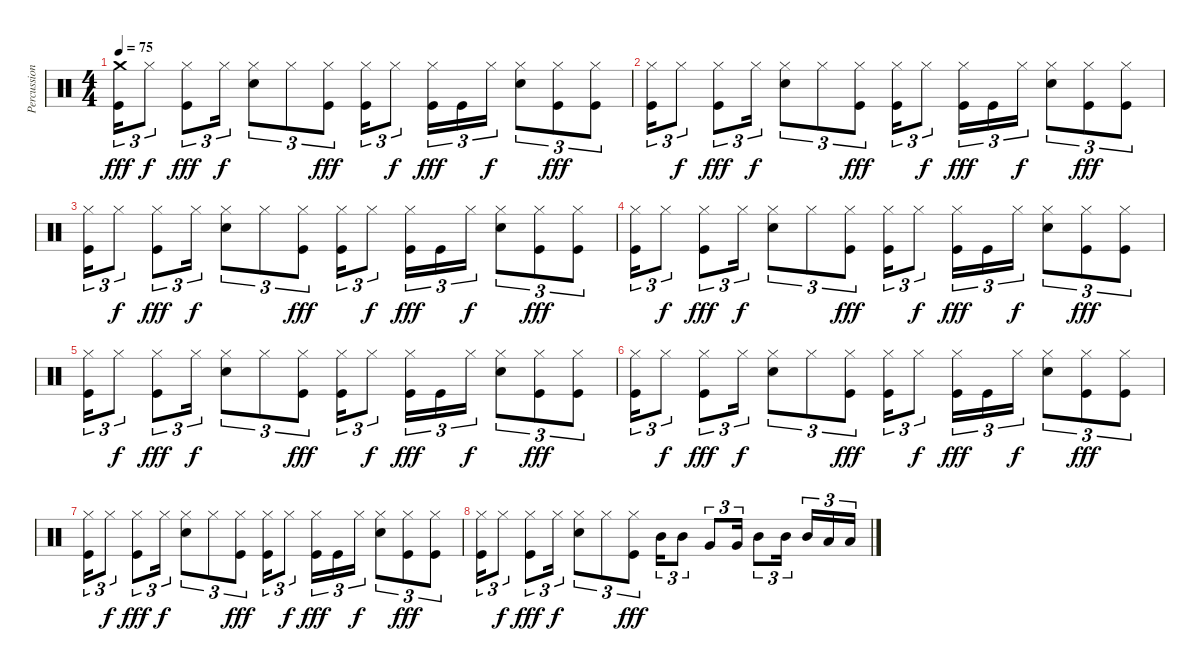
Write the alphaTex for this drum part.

\track ("Percussion" "Percussion") {instrument percussion}
\staff {score}
\articulation defaults
\ts (4 4)
\tempo 75
\clef neutral
\ks c
("Crash medium (hit)" "Kick (hit)").16{tu (3 2) dy fff} "Hi-Hat (closed)".8{tu (3 2) dy f} ("Hi-Hat (closed)" "Kick (hit)").8{tu (3 2) dy fff} "Hi-Hat (closed)".16{tu (3 2) dy f} ("Hi-Hat (closed)" "Snare (hit) 2").8{tu (3 2)} "Hi-Hat (closed)".8{tu (3 2)} ("Hi-Hat (closed)" "Kick (hit)").8{tu (3 2) dy fff} ("Hi-Hat (closed)" "Kick (hit)").16{tu (3 2)} "Hi-Hat (closed)".8{tu (3 2) dy f} ("Hi-Hat (closed)" "Kick (hit)").16{tu (3 2) dy fff} "Kick (hit)".16{tu (3 2)} "Hi-Hat (closed)".16{tu (3 2) dy f} ("Hi-Hat (closed)" "Snare (hit) 2").8{tu (3 2)} ("Hi-Hat (closed)" "Kick (hit)").8{tu (3 2) dy fff} ("Hi-Hat (closed)" "Kick (hit)").8{tu (3 2)} |
("Hi-Hat (closed)" "Kick (hit)").16{tu (3 2)} "Hi-Hat (closed)".8{tu (3 2) dy f} ("Hi-Hat (closed)" "Kick (hit)").8{tu (3 2) dy fff} "Hi-Hat (closed)".16{tu (3 2) dy f} ("Hi-Hat (closed)" "Snare (hit) 2").8{tu (3 2)} "Hi-Hat (closed)".8{tu (3 2)} ("Hi-Hat (closed)" "Kick (hit)").8{tu (3 2) dy fff} ("Hi-Hat (closed)" "Kick (hit)").16{tu (3 2)} "Hi-Hat (closed)".8{tu (3 2) dy f} ("Hi-Hat (closed)" "Kick (hit)").16{tu (3 2) dy fff} "Kick (hit)".16{tu (3 2)} "Hi-Hat (closed)".16{tu (3 2) dy f} ("Hi-Hat (closed)" "Snare (hit) 2").8{tu (3 2)} ("Hi-Hat (closed)" "Kick (hit)").8{tu (3 2) dy fff} ("Hi-Hat (closed)" "Kick (hit)").8{tu (3 2)} |
("Hi-Hat (closed)" "Kick (hit)").16{tu (3 2)} "Hi-Hat (closed)".8{tu (3 2) dy f} ("Hi-Hat (closed)" "Kick (hit)").8{tu (3 2) dy fff} "Hi-Hat (closed)".16{tu (3 2) dy f} ("Hi-Hat (closed)" "Snare (hit) 2").8{tu (3 2)} "Hi-Hat (closed)".8{tu (3 2)} ("Hi-Hat (closed)" "Kick (hit)").8{tu (3 2) dy fff} ("Hi-Hat (closed)" "Kick (hit)").16{tu (3 2)} "Hi-Hat (closed)".8{tu (3 2) dy f} ("Hi-Hat (closed)" "Kick (hit)").16{tu (3 2) dy fff} "Kick (hit)".16{tu (3 2)} "Hi-Hat (closed)".16{tu (3 2) dy f} ("Hi-Hat (closed)" "Snare (hit) 2").8{tu (3 2)} ("Hi-Hat (closed)" "Kick (hit)").8{tu (3 2) dy fff} ("Hi-Hat (closed)" "Kick (hit)").8{tu (3 2)} |
("Hi-Hat (closed)" "Kick (hit)").16{tu (3 2)} "Hi-Hat (closed)".8{tu (3 2) dy f} ("Hi-Hat (closed)" "Kick (hit)").8{tu (3 2) dy fff} "Hi-Hat (closed)".16{tu (3 2) dy f} ("Hi-Hat (closed)" "Snare (hit) 2").8{tu (3 2)} "Hi-Hat (closed)".8{tu (3 2)} ("Hi-Hat (closed)" "Kick (hit)").8{tu (3 2) dy fff} ("Hi-Hat (closed)" "Kick (hit)").16{tu (3 2)} "Hi-Hat (closed)".8{tu (3 2) dy f} ("Hi-Hat (closed)" "Kick (hit)").16{tu (3 2) dy fff} "Kick (hit)".16{tu (3 2)} "Hi-Hat (closed)".16{tu (3 2) dy f} ("Hi-Hat (closed)" "Snare (hit) 2").8{tu (3 2)} ("Hi-Hat (closed)" "Kick (hit)").8{tu (3 2) dy fff} ("Hi-Hat (closed)" "Kick (hit)").8{tu (3 2)} |
("Hi-Hat (closed)" "Kick (hit)").16{tu (3 2)} "Hi-Hat (closed)".8{tu (3 2) dy f} ("Hi-Hat (closed)" "Kick (hit)").8{tu (3 2) dy fff} "Hi-Hat (closed)".16{tu (3 2) dy f} ("Hi-Hat (closed)" "Snare (hit) 2").8{tu (3 2)} "Hi-Hat (closed)".8{tu (3 2)} ("Hi-Hat (closed)" "Kick (hit)").8{tu (3 2) dy fff} ("Hi-Hat (closed)" "Kick (hit)").16{tu (3 2)} "Hi-Hat (closed)".8{tu (3 2) dy f} ("Hi-Hat (closed)" "Kick (hit)").16{tu (3 2) dy fff} "Kick (hit)".16{tu (3 2)} "Hi-Hat (closed)".16{tu (3 2) dy f} ("Hi-Hat (closed)" "Snare (hit) 2").8{tu (3 2)} ("Hi-Hat (closed)" "Kick (hit)").8{tu (3 2) dy fff} ("Hi-Hat (closed)" "Kick (hit)").8{tu (3 2)} |
("Hi-Hat (closed)" "Kick (hit)").16{tu (3 2)} "Hi-Hat (closed)".8{tu (3 2) dy f} ("Hi-Hat (closed)" "Kick (hit)").8{tu (3 2) dy fff} "Hi-Hat (closed)".16{tu (3 2) dy f} ("Hi-Hat (closed)" "Snare (hit) 2").8{tu (3 2)} "Hi-Hat (closed)".8{tu (3 2)} ("Hi-Hat (closed)" "Kick (hit)").8{tu (3 2) dy fff} ("Hi-Hat (closed)" "Kick (hit)").16{tu (3 2)} "Hi-Hat (closed)".8{tu (3 2) dy f} ("Hi-Hat (closed)" "Kick (hit)").16{tu (3 2) dy fff} "Kick (hit)".16{tu (3 2)} "Hi-Hat (closed)".16{tu (3 2) dy f} ("Hi-Hat (closed)" "Snare (hit) 2").8{tu (3 2)} ("Hi-Hat (closed)" "Kick (hit)").8{tu (3 2) dy fff} ("Hi-Hat (closed)" "Kick (hit)").8{tu (3 2)} |
("Hi-Hat (closed)" "Kick (hit)").16{tu (3 2)} "Hi-Hat (closed)".8{tu (3 2) dy f} ("Hi-Hat (closed)" "Kick (hit)").8{tu (3 2) dy fff} "Hi-Hat (closed)".16{tu (3 2) dy f} ("Hi-Hat (closed)" "Snare (hit) 2").8{tu (3 2)} "Hi-Hat (closed)".8{tu (3 2)} ("Hi-Hat (closed)" "Kick (hit)").8{tu (3 2) dy fff} ("Hi-Hat (closed)" "Kick (hit)").16{tu (3 2)} "Hi-Hat (closed)".8{tu (3 2) dy f} ("Hi-Hat (closed)" "Kick (hit)").16{tu (3 2) dy fff} "Kick (hit)".16{tu (3 2)} "Hi-Hat (closed)".16{tu (3 2) dy f} ("Hi-Hat (closed)" "Snare (hit) 2").8{tu (3 2)} ("Hi-Hat (closed)" "Kick (hit)").8{tu (3 2) dy fff} ("Hi-Hat (closed)" "Kick (hit)").8{tu (3 2)} |
("Hi-Hat (closed)" "Kick (hit)").16{tu (3 2)} "Hi-Hat (closed)".8{tu (3 2) dy f} ("Hi-Hat (closed)" "Kick (hit)").8{tu (3 2) dy fff} "Hi-Hat (closed)".16{tu (3 2) dy f} ("Hi-Hat (closed)" "Snare (hit) 2").8{tu (3 2)} "Hi-Hat (closed)".8{tu (3 2)} ("Hi-Hat (closed)" "Kick (hit)").8{tu (3 2) dy fff} "Mid Tom (hit)".16{tu (3 2)} "Mid Tom (hit)".8{tu (3 2)} "Very Low Tom (hit)".8{tu (3 2)} "Very Low Tom (hit)".16{tu (3 2)} "Mid Tom (hit)".8{tu (3 2)} "Mid Tom (hit)".16{tu (3 2)} "Mid Tom (hit)".16{tu (3 2)} "Low Tom (hit)".16{tu (3 2)} "Low Tom (hit)".16{tu (3 2)}
